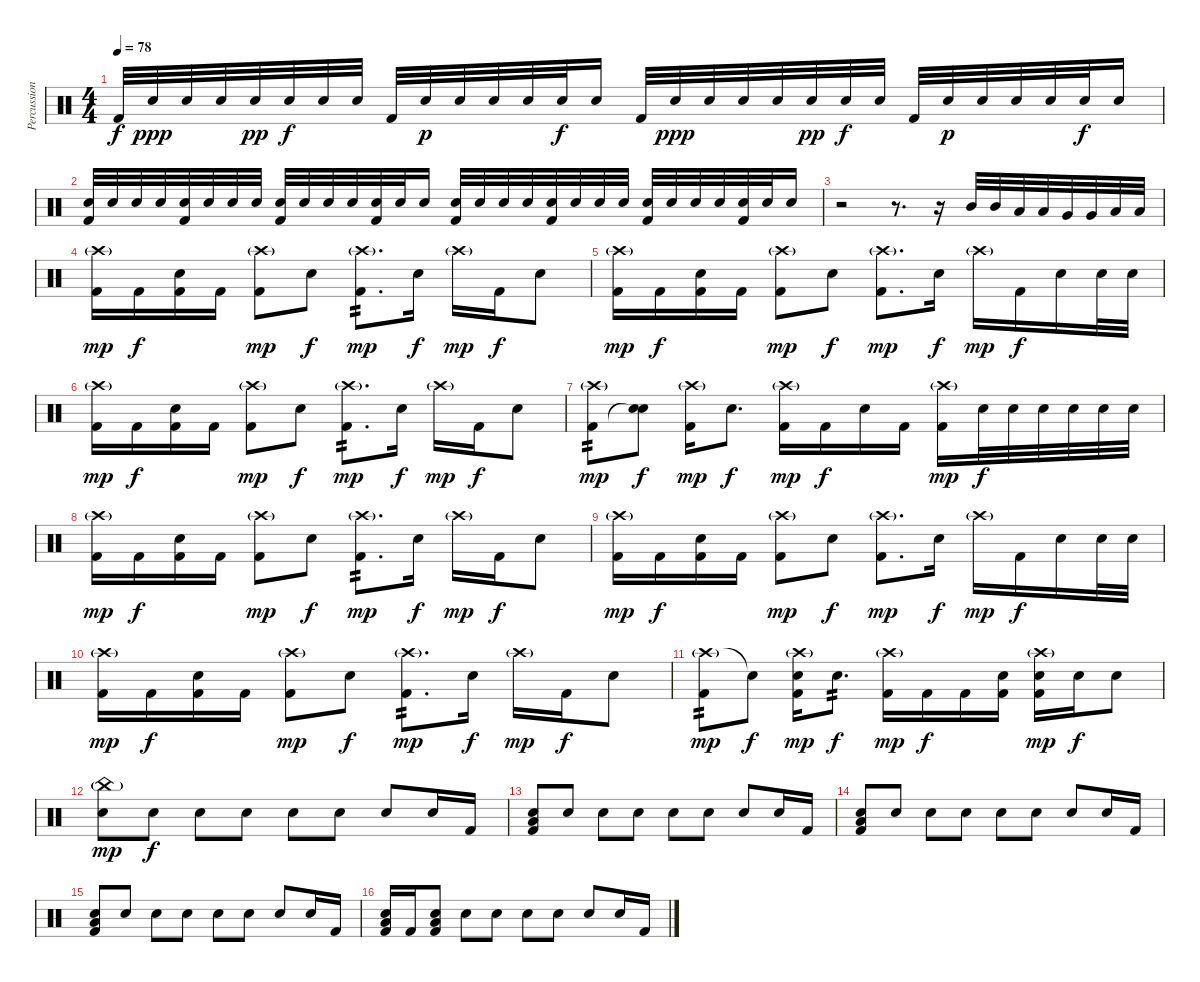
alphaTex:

\track ("Percussions" "Percussion") {instrument percussion}
\staff {score}
\articulation defaults
\ts (4 4)
\tempo 78
\clef neutral
\ks c "Kick (hit) 2".32{dy f} "Snare (hit) 2".32{dy ppp} "Snare (hit) 2".32 "Snare (hit) 2".32 "Snare (hit) 2".32{dy pp} "Snare (hit) 2".32{dy f} "Snare (hit) 2".32 "Snare (hit) 2".32 "Kick (hit) 2".32 "Snare (hit) 2".32{dy p} "Snare (hit) 2".32 "Snare (hit) 2".32 "Snare (hit) 2".32 "Snare (hit) 2".32{dy f} "Snare (hit) 2".16 "Kick (hit) 2".32 "Snare (hit) 2".32{dy ppp} "Snare (hit) 2".32 "Snare (hit) 2".32 "Snare (hit) 2".32 "Snare (hit) 2".32{dy pp} "Snare (hit) 2".32{dy f} "Snare (hit) 2".32 "Kick (hit) 2".32 "Snare (hit) 2".32{dy p} "Snare (hit) 2".32 "Snare (hit) 2".32 "Snare (hit) 2".32 "Snare (hit) 2".32{dy f} "Snare (hit) 2".16
|
("Snare (hit) 2" "Kick (hit) 2").32 "Snare (hit) 2".32 "Snare (hit) 2".32 "Snare (hit) 2".32 ("Snare (hit) 2" "Kick (hit) 2").32 "Snare (hit) 2".32 "Snare (hit) 2".32 "Snare (hit) 2".32 ("Snare (hit) 2" "Kick (hit) 2").32 "Snare (hit) 2".32 "Snare (hit) 2".32 "Snare (hit) 2".32 ("Snare (hit) 2" "Kick (hit) 2").32 "Snare (hit) 2".32 "Snare (hit) 2".16 ("Snare (hit) 2" "Kick (hit) 2").32 "Snare (hit) 2".32 "Snare (hit) 2".32 "Snare (hit) 2".32 ("Snare (hit) 2" "Kick (hit) 2").32 "Snare (hit) 2".32 "Snare (hit) 2".32 "Snare (hit) 2".32 ("Snare (hit) 2" "Kick (hit) 2").32 "Snare (hit) 2".32 "Snare (hit) 2".32 "Snare (hit) 2".32 ("Snare (hit) 2" "Kick (hit) 2").32 "Snare (hit) 2".32 "Snare (hit) 2".16 |
r.2 r.8{d} r.16 "Mid Tom (hit)".32 "Mid Tom (hit)".32 "Low Tom (hit)".32 "Low Tom (hit)".32 "Very Low Tom (hit)".32 "Very Low Tom (hit)".32 "Low Floor Tom (hit)".32 "Low Floor Tom (hit)".32 |
("Crash high (hit)"{g} "Kick (hit) 2").16{dy mp} "Kick (hit) 2".16{dy f} ("Snare (hit) 2" "Kick (hit) 2").16 "Kick (hit) 2".16 ("Crash high (hit)"{g} "Kick (hit) 2").8{dy mp} "Snare (hit) 2".8{dy f} ("Crash high (hit)"{g} "Kick (hit) 2").8{d tp 2 dy mp} "Snare (hit) 2".16{dy f} "Crash high (hit)"{g}.16{dy mp} "Kick (hit) 2".16{dy f} "Snare (hit) 2".8 |
("Crash high (hit)"{g} "Kick (hit) 2").16{dy mp} "Kick (hit) 2".16{dy f} ("Snare (hit) 2" "Kick (hit) 2").16 "Kick (hit) 2".16 ("Crash high (hit)"{g} "Kick (hit) 2").8{dy mp} "Snare (hit) 2".8{dy f} ("Crash high (hit)"{g} "Kick (hit) 2").8{d dy mp} "Snare (hit) 2".16{dy f} "Crash high (hit)"{g}.16{dy mp} "Kick (hit) 2".16{dy f} "Snare (hit) 2".16 "Snare (hit) 2".32 "Snare (hit) 2".32 |
("Crash high (hit)"{g} "Kick (hit) 2").16{dy mp} "Kick (hit) 2".16{dy f} ("Snare (hit) 2" "Kick (hit) 2").16 "Kick (hit) 2".16 ("Crash high (hit)"{g} "Kick (hit) 2").8{dy mp} "Snare (hit) 2".8{dy f} ("Crash high (hit)"{g} "Kick (hit) 2").8{d tp 2 dy mp} "Snare (hit) 2".16{dy f} "Crash high (hit)"{g}.16{dy mp} "Kick (hit) 2".16{dy f} "Snare (hit) 2".8 |
("Crash high (hit)"{g} "Kick (hit) 2").8{tp 2 dy mp} ("Snare (hit) 2" "Snare (hit)"{t}).8{dy f} ("Crash high (hit)"{g} "Kick (hit) 2").16{dy mp} "Snare (hit) 2".8{d dy f} ("Crash high (hit)"{g} "Kick (hit) 2").16{dy mp} "Kick (hit) 2".16{dy f} "Snare (hit) 2".16 "Kick (hit) 2".16 ("Crash high (hit)"{g} "Kick (hit) 2").16{dy mp} "Snare (hit) 2".32{dy f} "Snare (hit) 2".32 "Snare (hit) 2".32 "Snare (hit) 2".32 "Snare (hit) 2".32 "Snare (hit) 2".32 |
("Crash high (hit)"{g} "Kick (hit) 2").16{dy mp} "Kick (hit) 2".16{dy f} ("Snare (hit) 2" "Kick (hit) 2").16 "Kick (hit) 2".16 ("Crash high (hit)"{g} "Kick (hit) 2").8{dy mp} "Snare (hit) 2".8{dy f} ("Crash high (hit)"{g} "Kick (hit) 2").8{d tp 2 dy mp} "Snare (hit) 2".16{dy f} "Crash high (hit)"{g}.16{dy mp} "Kick (hit) 2".16{dy f} "Snare (hit) 2".8 |
("Crash high (hit)"{g} "Kick (hit) 2").16{dy mp} "Kick (hit) 2".16{dy f} ("Snare (hit) 2" "Kick (hit) 2").16 "Kick (hit) 2".16 ("Crash high (hit)"{g} "Kick (hit) 2").8{dy mp} "Snare (hit) 2".8{dy f} ("Crash high (hit)"{g} "Kick (hit) 2").8{d dy mp} "Snare (hit) 2".16{dy f} "Crash high (hit)"{g}.16{dy mp} "Kick (hit) 2".16{dy f} "Snare (hit) 2".16 "Snare (hit) 2".32 "Snare (hit) 2".32 |
("Crash high (hit)"{g} "Kick (hit) 2").16{dy mp} "Kick (hit) 2".16{dy f} ("Snare (hit) 2" "Kick (hit) 2").16 "Kick (hit) 2".16 ("Crash high (hit)"{g} "Kick (hit) 2").8{dy mp} "Snare (hit) 2".8{dy f} ("Crash high (hit)"{g} "Kick (hit) 2").8{d tp 2 dy mp} "Snare (hit) 2".16{dy f} "Crash high (hit)"{g}.16{dy mp} "Kick (hit) 2".16{dy f} "Snare (hit) 2".8 |
("Crash high (hit)"{g} "Kick (hit) 2").8{tp 2 dy mp} "Snare (hit)"{t}.8{dy f} ("Crash high (hit)"{g} "Snare (hit) 2" "Kick (hit) 2").16{dy mp} "Snare (hit) 2".8{d tp 2 dy f} ("Crash high (hit)"{g} "Kick (hit) 2").16{dy mp} "Kick (hit) 2".16{dy f} "Kick (hit) 2".16 ("Snare (hit) 2" "Kick (hit) 2").16 ("Crash high (hit)"{g} "Snare (hit) 2" "Kick (hit) 2").16{dy mp} "Snare (hit) 2".16{dy f} "Snare (hit) 2".8 |
("China (hit)"{g} "Snare (hit) 2").8{dy mp} "Snare (hit) 2".8{dy f} "Snare (hit) 2".8 "Snare (hit) 2".8 "Snare (hit) 2".8 "Snare (hit) 2".8 "Snare (hit) 2".8 "Snare (hit) 2".16 "Kick (hit) 2".16 |
("Snare (hit) 2" "Low Floor Tom (hit)" "Kick (hit) 2").8 "Snare (hit) 2".8 "Snare (hit) 2".8 "Snare (hit) 2".8 "Snare (hit) 2".8 "Snare (hit) 2".8 "Snare (hit) 2".8 "Snare (hit) 2".16 "Kick (hit) 2".16 |
("Snare (hit) 2" "Low Floor Tom (hit)" "Kick (hit) 2").8 "Snare (hit) 2".8 "Snare (hit) 2".8 "Snare (hit) 2".8 "Snare (hit) 2".8 "Snare (hit) 2".8 "Snare (hit) 2".8 "Snare (hit) 2".16 "Kick (hit) 2".16 |
("Snare (hit) 2" "Low Floor Tom (hit)" "Kick (hit) 2").8 "Snare (hit) 2".8 "Snare (hit) 2".8 "Snare (hit) 2".8 "Snare (hit) 2".8 "Snare (hit) 2".8 "Snare (hit) 2".8 "Snare (hit) 2".16 "Kick (hit) 2".16 |
("Snare (hit) 2" "Low Floor Tom (hit)" "Kick (hit) 2").16 "Kick (hit) 2".16 ("Snare (hit) 2" "Low Floor Tom (hit)" "Kick (hit) 2").8 "Snare (hit) 2".8 "Snare (hit) 2".8 "Snare (hit) 2".8 "Snare (hit) 2".8 "Snare (hit) 2".8 "Snare (hit) 2".16 "Kick (hit) 2".16
